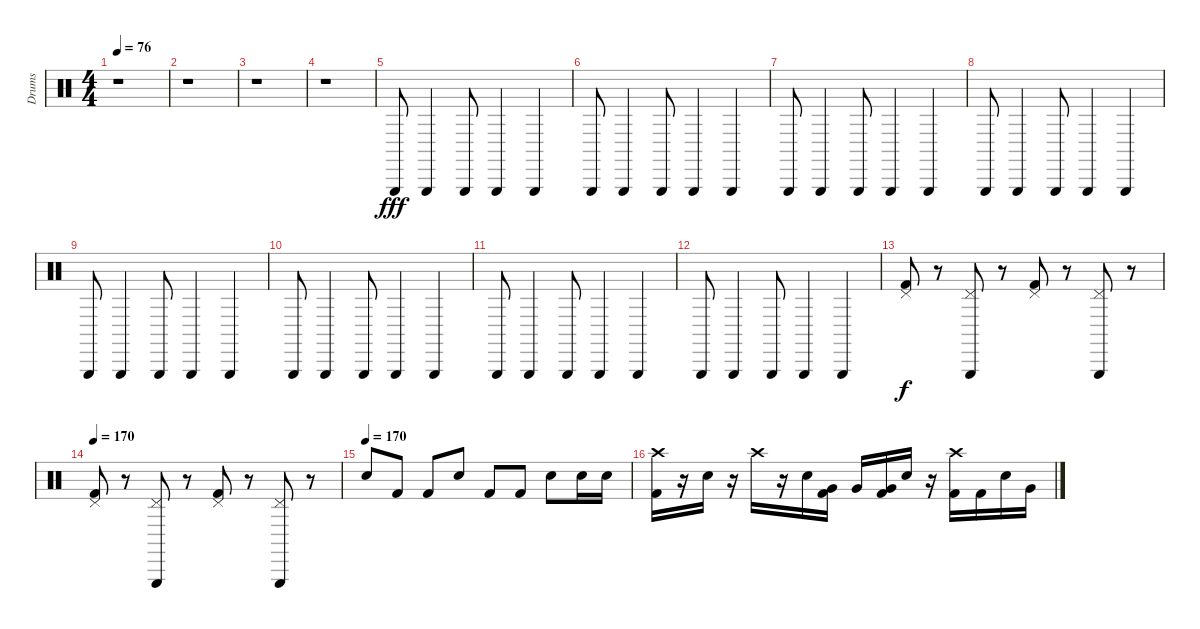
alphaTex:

\track ("Drums" "Drums") {instrument percussion}
\staff {score}
\articulation defaults
\ts (4 4)
\tempo 76
\clef neutral
\ks c
r.1{dy fff} |
r.1 |
r.1 |
r.1 |
"Triangle (hit)".8 "Triangle (hit)".4 "Triangle (hit)".8 "Triangle (hit)".4 "Triangle (hit)".4 |
"Triangle (hit)".8 "Triangle (hit)".4 "Triangle (hit)".8 "Triangle (hit)".4 "Triangle (hit)".4 |
"Triangle (hit)".8 "Triangle (hit)".4 "Triangle (hit)".8 "Triangle (hit)".4 "Triangle (hit)".4 |
"Triangle (hit)".8 "Triangle (hit)".4 "Triangle (hit)".8 "Triangle (hit)".4 "Triangle (hit)".4 |
"Triangle (hit)".8 "Triangle (hit)".4 "Triangle (hit)".8 "Triangle (hit)".4 "Triangle (hit)".4 |
"Triangle (hit)".8 "Triangle (hit)".4 "Triangle (hit)".8 "Triangle (hit)".4 "Triangle (hit)".4 |
"Triangle (hit)".8 "Triangle (hit)".4 "Triangle (hit)".8 "Triangle (hit)".4 "Triangle (hit)".4 |
"Triangle (hit)".8 "Triangle (hit)".4 "Triangle (hit)".8 "Triangle (hit)".4 "Triangle (hit)".4 |
("Pedal Hi-Hat (hit)" "Kick (hit) 2").8{dy f} r.8 ("Triangle (hit)" "Pedal Hi-Hat (hit)").8 r.8 ("Pedal Hi-Hat (hit)" "Kick (hit) 2").8 r.8 ("Triangle (hit)" "Pedal Hi-Hat (hit)").8 r.8 |
\tempo 170
("Pedal Hi-Hat (hit)" "Kick (hit) 2").8 r.8 ("Triangle (hit)" "Pedal Hi-Hat (hit)").8 r.8 ("Pedal Hi-Hat (hit)" "Kick (hit) 2").8 r.8 ("Triangle (hit)" "Pedal Hi-Hat (hit)").8 r.8 |
\tempo (170)
"Electric Snare (hit)".8 "Kick (hit) 2".8 "Kick (hit) 2".8 "Electric Snare (hit)".8 "Kick (hit) 2".8 "Kick (hit) 2".8 "Electric Snare (hit)".8 "Electric Snare (hit)".16 "Electric Snare (hit)".16 |
("Crash high (hit)" "Kick (hit) 2").16 r.16 "Electric Snare (hit)".16 r.16 "Crash high (hit)".16 r.16 "Electric Snare (hit)".16 ("Very Low Tom (hit)" "Kick (hit) 2").16 "Very Low Tom (hit)".16 ("Very Low Tom (hit)" "Kick (hit) 2").16 "Electric Snare (hit)".16 r.16 ("Crash high (hit)" "Kick (hit) 2").16 "Kick (hit) 2".16 "Electric Snare (hit)".16 "Very Low Tom (hit)".16
